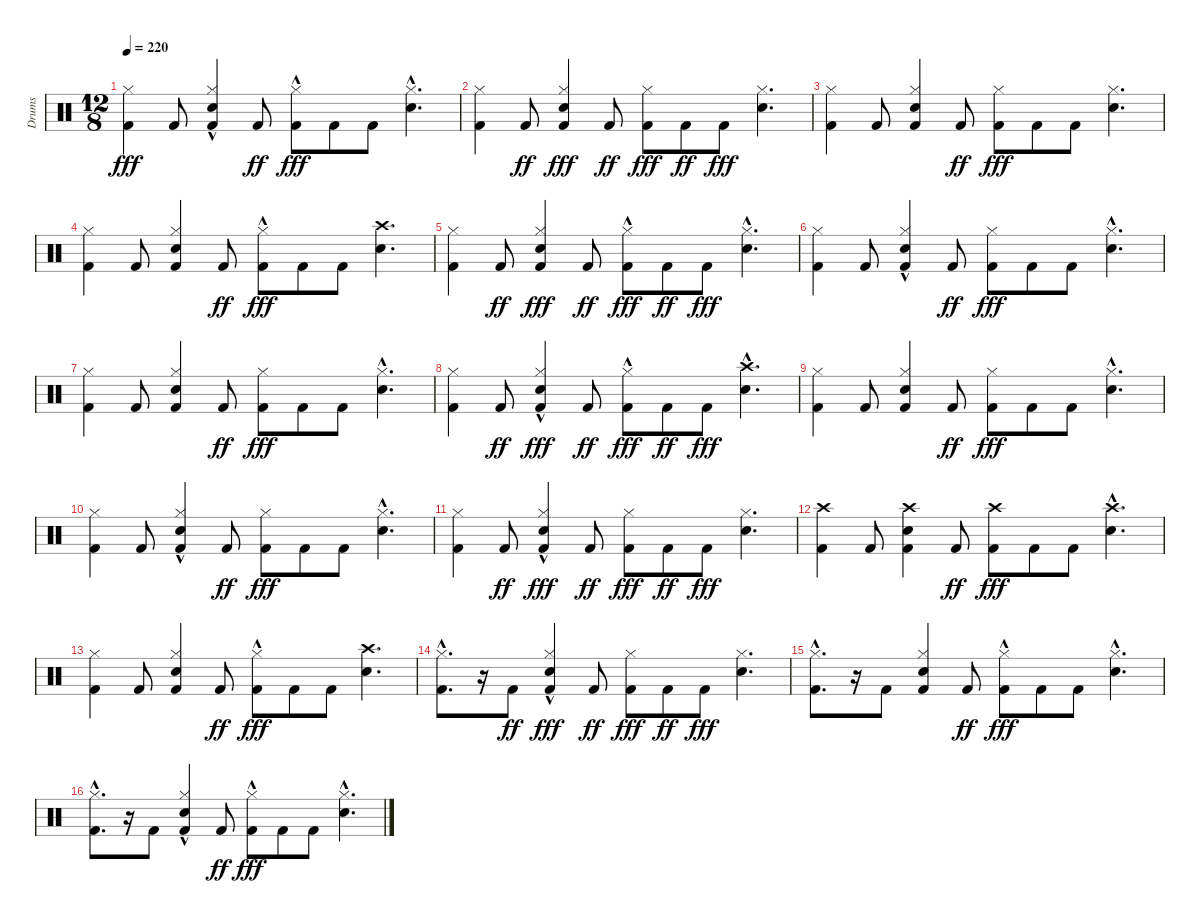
\track ("Drums" "Drums") {instrument percussion}
\staff {score}
\articulation defaults
\ts (12 8)
\tempo 220
\clef neutral
\ks c
("Kick (hit) 2" "Hi-Hat (closed)").4{dy fff} "Kick (hit) 2".8 ("Kick (hit) 2" "Snare (hit) 2"{hac} "Hi-Hat (closed)").4 "Kick (hit) 2".8{dy ff} ("Kick (hit) 2" "Hi-Hat (closed)"{hac}).8{dy fff} "Kick (hit) 2".8 "Kick (hit) 2".8 ("Snare (hit) 2"{hac} "Hi-Hat (closed)").4{d} |
("Kick (hit) 2" "Hi-Hat (closed)").4 "Kick (hit) 2".8{dy ff} ("Kick (hit) 2" "Snare (hit) 2" "Hi-Hat (closed)").4{dy fff} "Kick (hit) 2".8{dy ff} ("Kick (hit) 2" "Hi-Hat (closed)").8{dy fff} "Kick (hit) 2".8{dy ff} "Kick (hit) 2".8{dy fff} ("Snare (hit) 2" "Hi-Hat (closed)").4{d} |
("Kick (hit) 2" "Hi-Hat (closed)").4 "Kick (hit) 2".8 ("Kick (hit) 2" "Snare (hit) 2" "Hi-Hat (closed)").4 "Kick (hit) 2".8{dy ff} ("Kick (hit) 2" "Hi-Hat (closed)").8{dy fff} "Kick (hit) 2".8 "Kick (hit) 2".8 ("Snare (hit) 2" "Hi-Hat (closed)").4{d} |
("Kick (hit) 2" "Hi-Hat (closed)").4 "Kick (hit) 2".8 ("Kick (hit) 2" "Snare (hit) 2" "Hi-Hat (closed)").4 "Kick (hit) 2".8{dy ff} ("Kick (hit) 2" "Hi-Hat (closed)"{hac}).8{dy fff} "Kick (hit) 2".8 "Kick (hit) 2".8 ("Snare (hit) 2" "Crash high (hit)").4{d} |
("Kick (hit) 2" "Hi-Hat (closed)").4 "Kick (hit) 2".8{dy ff} ("Kick (hit) 2" "Snare (hit) 2" "Hi-Hat (closed)").4{dy fff} "Kick (hit) 2".8{dy ff} ("Kick (hit) 2" "Hi-Hat (closed)"{hac}).8{dy fff} "Kick (hit) 2".8{dy ff} "Kick (hit) 2".8{dy fff} ("Snare (hit) 2" "Hi-Hat (closed)"{hac}).4{d} |
("Kick (hit) 2" "Hi-Hat (closed)").4 "Kick (hit) 2".8 ("Kick (hit) 2" "Snare (hit) 2"{hac} "Hi-Hat (closed)").4 "Kick (hit) 2".8{dy ff} ("Kick (hit) 2" "Hi-Hat (closed)").8{dy fff} "Kick (hit) 2".8 "Kick (hit) 2".8 ("Snare (hit) 2"{hac} "Hi-Hat (closed)").4{d} |
("Kick (hit) 2" "Hi-Hat (closed)").4 "Kick (hit) 2".8 ("Kick (hit) 2" "Snare (hit) 2" "Hi-Hat (closed)").4 "Kick (hit) 2".8{dy ff} ("Kick (hit) 2" "Hi-Hat (closed)").8{dy fff} "Kick (hit) 2".8 "Kick (hit) 2".8 ("Snare (hit) 2"{hac} "Hi-Hat (closed)").4{d} |
("Kick (hit) 2" "Hi-Hat (closed)").4 "Kick (hit) 2".8{dy ff} ("Kick (hit) 2" "Snare (hit) 2"{hac} "Hi-Hat (closed)"{hac}).4{dy fff} "Kick (hit) 2".8{dy ff} ("Kick (hit) 2" "Hi-Hat (closed)"{hac}).8{dy fff} "Kick (hit) 2".8{dy ff} "Kick (hit) 2".8{dy fff} ("Snare (hit) 2"{hac} "Crash high (hit)").4{d} |
("Kick (hit) 2" "Hi-Hat (closed)").4 "Kick (hit) 2".8 ("Kick (hit) 2" "Snare (hit) 2" "Hi-Hat (closed)").4 "Kick (hit) 2".8{dy ff} ("Kick (hit) 2" "Hi-Hat (closed)").8{dy fff} "Kick (hit) 2".8 "Kick (hit) 2".8 ("Snare (hit) 2"{hac} "Hi-Hat (closed)").4{d} |
("Kick (hit) 2" "Hi-Hat (closed)").4 "Kick (hit) 2".8 ("Kick (hit) 2" "Snare (hit) 2"{hac} "Hi-Hat (closed)").4 "Kick (hit) 2".8{dy ff} ("Kick (hit) 2" "Hi-Hat (closed)").8{dy fff} "Kick (hit) 2".8 "Kick (hit) 2".8 ("Snare (hit) 2"{hac} "Hi-Hat (closed)").4{d} |
("Kick (hit) 2" "Hi-Hat (closed)").4 "Kick (hit) 2".8{dy ff} ("Kick (hit) 2" "Snare (hit) 2"{hac} "Hi-Hat (closed)").4{dy fff} "Kick (hit) 2".8{dy ff} ("Kick (hit) 2" "Hi-Hat (closed)").8{dy fff} "Kick (hit) 2".8{dy ff} "Kick (hit) 2".8{dy fff} ("Snare (hit) 2" "Hi-Hat (closed)").4{d} |
("Kick (hit) 2" "Crash high (hit)").4 "Kick (hit) 2".8 ("Kick (hit) 2" "Snare (hit) 2" "Crash high (hit)").4 "Kick (hit) 2".8{dy ff} ("Kick (hit) 2" "Crash high (hit)").8{dy fff} "Kick (hit) 2".8 "Kick (hit) 2".8 ("Snare (hit) 2"{hac} "Crash high (hit)").4{d} |
("Kick (hit) 2" "Hi-Hat (closed)").4 "Kick (hit) 2".8 ("Kick (hit) 2" "Snare (hit) 2" "Hi-Hat (closed)").4 "Kick (hit) 2".8{dy ff} ("Kick (hit) 2" "Hi-Hat (closed)"{hac}).8{dy fff} "Kick (hit) 2".8 "Kick (hit) 2".8 ("Snare (hit) 2" "Crash high (hit)").4{d} |
("Kick (hit) 2" "Hi-Hat (closed)"{hac}).8{d} r.16 "Kick (hit) 2".8{dy ff} ("Kick (hit) 2" "Snare (hit) 2" "Hi-Hat (closed)"{hac}).4{dy fff} "Kick (hit) 2".8{dy ff} ("Kick (hit) 2" "Hi-Hat (closed)").8{dy fff} "Kick (hit) 2".8{dy ff} "Kick (hit) 2".8{dy fff} ("Snare (hit) 2" "Hi-Hat (closed)").4{d} |
("Kick (hit) 2" "Hi-Hat (closed)"{hac}).8{d} r.16 "Kick (hit) 2".8 ("Kick (hit) 2" "Snare (hit) 2" "Hi-Hat (closed)").4 "Kick (hit) 2".8{dy ff} ("Kick (hit) 2" "Hi-Hat (closed)"{hac}).8{dy fff} "Kick (hit) 2".8 "Kick (hit) 2".8 ("Snare (hit) 2" "Hi-Hat (closed)"{hac}).4{d} |
("Kick (hit) 2" "Hi-Hat (closed)"{hac}).8{d} r.16 "Kick (hit) 2".8 ("Kick (hit) 2" "Snare (hit) 2" "Hi-Hat (closed)"{hac}).4 "Kick (hit) 2".8{dy ff} ("Kick (hit) 2" "Hi-Hat (closed)"{hac}).8{dy fff} "Kick (hit) 2".8 "Kick (hit) 2".8 ("Snare (hit) 2" "Hi-Hat (closed)"{hac}).4{d}
